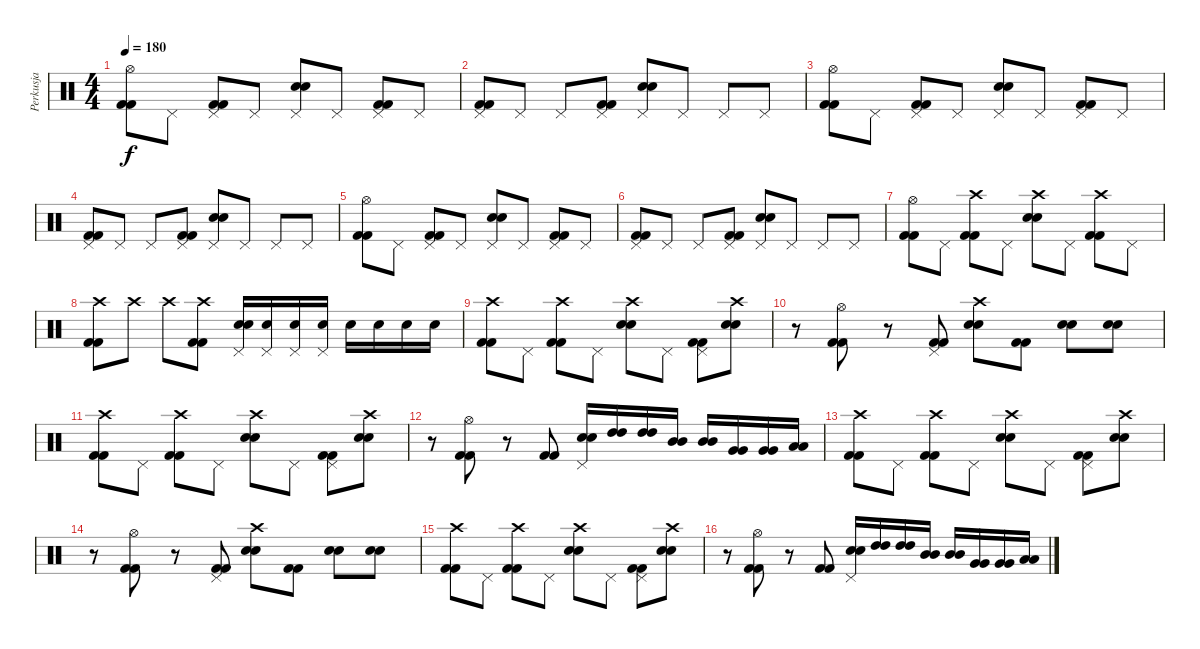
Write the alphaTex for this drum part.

\track ("Perkusja" "Perkusja") {instrument percussion}
\staff {score}
\articulation defaults
\ts (4 4)
\tempo 180
\clef neutral
\ks c
("Hi-Hat (open)" "Kick (hit) 2" "Kick (hit) 2").8{dy f} "Pedal Hi-Hat (hit)".8 ("Pedal Hi-Hat (hit)" "Kick (hit) 2" "Kick (hit) 2").8 "Pedal Hi-Hat (hit)".8 ("Pedal Hi-Hat (hit)" "Snare (hit) 2" "Snare (hit) 2").8 "Pedal Hi-Hat (hit)".8 ("Pedal Hi-Hat (hit)" "Kick (hit) 2" "Kick (hit) 2").8 "Pedal Hi-Hat (hit)".8 |
("Pedal Hi-Hat (hit)" "Kick (hit) 2" "Kick (hit) 2").8 "Pedal Hi-Hat (hit)".8 "Pedal Hi-Hat (hit)".8 ("Pedal Hi-Hat (hit)" "Kick (hit) 2" "Kick (hit) 2").8 ("Pedal Hi-Hat (hit)" "Snare (hit) 2" "Snare (hit) 2").8 "Pedal Hi-Hat (hit)".8 "Pedal Hi-Hat (hit)".8 "Pedal Hi-Hat (hit)".8 |
("Hi-Hat (open)" "Kick (hit) 2" "Kick (hit) 2").8 "Pedal Hi-Hat (hit)".8 ("Pedal Hi-Hat (hit)" "Kick (hit) 2" "Kick (hit) 2").8 "Pedal Hi-Hat (hit)".8 ("Pedal Hi-Hat (hit)" "Snare (hit) 2" "Snare (hit) 2").8 "Pedal Hi-Hat (hit)".8 ("Pedal Hi-Hat (hit)" "Kick (hit) 2" "Kick (hit) 2").8 "Pedal Hi-Hat (hit)".8 |
("Pedal Hi-Hat (hit)" "Kick (hit) 2" "Kick (hit) 2").8 "Pedal Hi-Hat (hit)".8 "Pedal Hi-Hat (hit)".8 ("Pedal Hi-Hat (hit)" "Kick (hit) 2" "Kick (hit) 2").8 ("Pedal Hi-Hat (hit)" "Snare (hit) 2" "Snare (hit) 2").8 "Pedal Hi-Hat (hit)".8 "Pedal Hi-Hat (hit)".8 "Pedal Hi-Hat (hit)".8 |
("Hi-Hat (open)" "Kick (hit) 2" "Kick (hit) 2").8 "Pedal Hi-Hat (hit)".8 ("Pedal Hi-Hat (hit)" "Kick (hit) 2" "Kick (hit) 2").8 "Pedal Hi-Hat (hit)".8 ("Pedal Hi-Hat (hit)" "Snare (hit) 2" "Snare (hit) 2").8 "Pedal Hi-Hat (hit)".8 ("Pedal Hi-Hat (hit)" "Kick (hit) 2" "Kick (hit) 2").8 "Pedal Hi-Hat (hit)".8 |
("Pedal Hi-Hat (hit)" "Kick (hit) 2" "Kick (hit) 2").8 "Pedal Hi-Hat (hit)".8 "Pedal Hi-Hat (hit)".8 ("Pedal Hi-Hat (hit)" "Kick (hit) 2" "Kick (hit) 2").8 ("Pedal Hi-Hat (hit)" "Snare (hit) 2" "Snare (hit) 2").8 "Pedal Hi-Hat (hit)".8 "Pedal Hi-Hat (hit)".8 "Pedal Hi-Hat (hit)".8 |
("Hi-Hat (open)" "Kick (hit) 2" "Kick (hit) 2").8 "Pedal Hi-Hat (hit)".8 ("Crash high (hit)" "Kick (hit) 2" "Kick (hit) 2").8 "Pedal Hi-Hat (hit)".8 ("Crash high (hit)" "Snare (hit) 2" "Snare (hit) 2").8 "Pedal Hi-Hat (hit)".8 ("Crash high (hit)" "Kick (hit) 2" "Kick (hit) 2").8 "Pedal Hi-Hat (hit)".8 |
("Crash high (hit)" "Kick (hit) 2" "Kick (hit) 2").8 "Crash high (hit)".8 "Crash high (hit)".8 ("Crash high (hit)" "Kick (hit) 2" "Kick (hit) 2").8 ("Pedal Hi-Hat (hit)" "Snare (hit) 2" "Snare (hit) 2").16 ("Pedal Hi-Hat (hit)" "Snare (hit) 2").16 ("Pedal Hi-Hat (hit)" "Snare (hit) 2").16 ("Pedal Hi-Hat (hit)" "Snare (hit) 2").16 "Snare (hit) 2".16 "Snare (hit) 2".16 "Snare (hit) 2".16 "Snare (hit) 2".16 |
("Crash high (hit)" "Kick (hit) 2" "Kick (hit) 2").8 "Pedal Hi-Hat (hit)".8 ("Crash high (hit)" "Kick (hit) 2" "Kick (hit) 2").8 "Pedal Hi-Hat (hit)".8 ("Crash high (hit)" "Snare (hit) 2" "Snare (hit) 2").8 "Pedal Hi-Hat (hit)".8 ("Pedal Hi-Hat (hit)" "Kick (hit) 2" "Kick (hit) 2").8 ("Crash high (hit)" "Snare (hit) 2" "Snare (hit) 2").8 |
r.8 ("Hi-Hat (open)" "Kick (hit) 2" "Kick (hit) 2").8 r.8 ("Pedal Hi-Hat (hit)" "Kick (hit) 2" "Kick (hit) 2").8 ("Crash high (hit)" "Snare (hit) 2" "Snare (hit) 2").8 ("Kick (hit) 2" "Kick (hit) 2").8 ("Snare (hit) 2" "Snare (hit) 2").8 ("Snare (hit) 2" "Snare (hit) 2").8 |
("Crash high (hit)" "Kick (hit) 2" "Kick (hit) 2").8 "Pedal Hi-Hat (hit)".8 ("Crash high (hit)" "Kick (hit) 2" "Kick (hit) 2").8 "Pedal Hi-Hat (hit)".8 ("Crash high (hit)" "Snare (hit) 2" "Snare (hit) 2").8 "Pedal Hi-Hat (hit)".8 ("Pedal Hi-Hat (hit)" "Kick (hit) 2" "Kick (hit) 2").8 ("Crash high (hit)" "Snare (hit) 2" "Snare (hit) 2").8 |
r.8 ("Hi-Hat (open)" "Kick (hit) 2" "Kick (hit) 2").8 r.8 ("Kick (hit) 2" "Kick (hit) 2").8 ("Snare (hit) 2" "Snare (hit) 2" "Pedal Hi-Hat (hit)").16 ("High Tom (hit)" "High Tom (hit)").16 ("High Tom (hit)" "High Tom (hit)").16 ("Mid Tom (hit)" "Mid Tom (hit)").16 ("Mid Tom (hit)" "Mid Tom (hit)").16 ("Very Low Tom (hit)" "Very Low Tom (hit)").16 ("Very Low Tom (hit)" "Very Low Tom (hit)").16 ("Low Floor Tom (hit)" "Low Floor Tom (hit)").16 |
("Crash high (hit)" "Kick (hit) 2" "Kick (hit) 2").8 "Pedal Hi-Hat (hit)".8 ("Crash high (hit)" "Kick (hit) 2" "Kick (hit) 2").8 "Pedal Hi-Hat (hit)".8 ("Crash high (hit)" "Snare (hit) 2" "Snare (hit) 2").8 "Pedal Hi-Hat (hit)".8 ("Pedal Hi-Hat (hit)" "Kick (hit) 2" "Kick (hit) 2").8 ("Crash high (hit)" "Snare (hit) 2" "Snare (hit) 2").8 |
r.8 ("Hi-Hat (open)" "Kick (hit) 2" "Kick (hit) 2").8 r.8 ("Pedal Hi-Hat (hit)" "Kick (hit) 2" "Kick (hit) 2").8 ("Crash high (hit)" "Snare (hit) 2" "Snare (hit) 2").8 ("Kick (hit) 2" "Kick (hit) 2").8 ("Snare (hit) 2" "Snare (hit) 2").8 ("Snare (hit) 2" "Snare (hit) 2").8 |
("Crash high (hit)" "Kick (hit) 2" "Kick (hit) 2").8 "Pedal Hi-Hat (hit)".8 ("Crash high (hit)" "Kick (hit) 2" "Kick (hit) 2").8 "Pedal Hi-Hat (hit)".8 ("Crash high (hit)" "Snare (hit) 2" "Snare (hit) 2").8 "Pedal Hi-Hat (hit)".8 ("Pedal Hi-Hat (hit)" "Kick (hit) 2" "Kick (hit) 2").8 ("Crash high (hit)" "Snare (hit) 2" "Snare (hit) 2").8 |
r.8 ("Hi-Hat (open)" "Kick (hit) 2" "Kick (hit) 2").8 r.8 ("Kick (hit) 2" "Kick (hit) 2").8 ("Snare (hit) 2" "Snare (hit) 2" "Pedal Hi-Hat (hit)").16 ("High Tom (hit)" "High Tom (hit)").16 ("High Tom (hit)" "High Tom (hit)").16 ("Mid Tom (hit)" "Mid Tom (hit)").16 ("Mid Tom (hit)" "Mid Tom (hit)").16 ("Very Low Tom (hit)" "Very Low Tom (hit)").16 ("Very Low Tom (hit)" "Very Low Tom (hit)").16 ("Low Floor Tom (hit)" "Low Floor Tom (hit)").16
